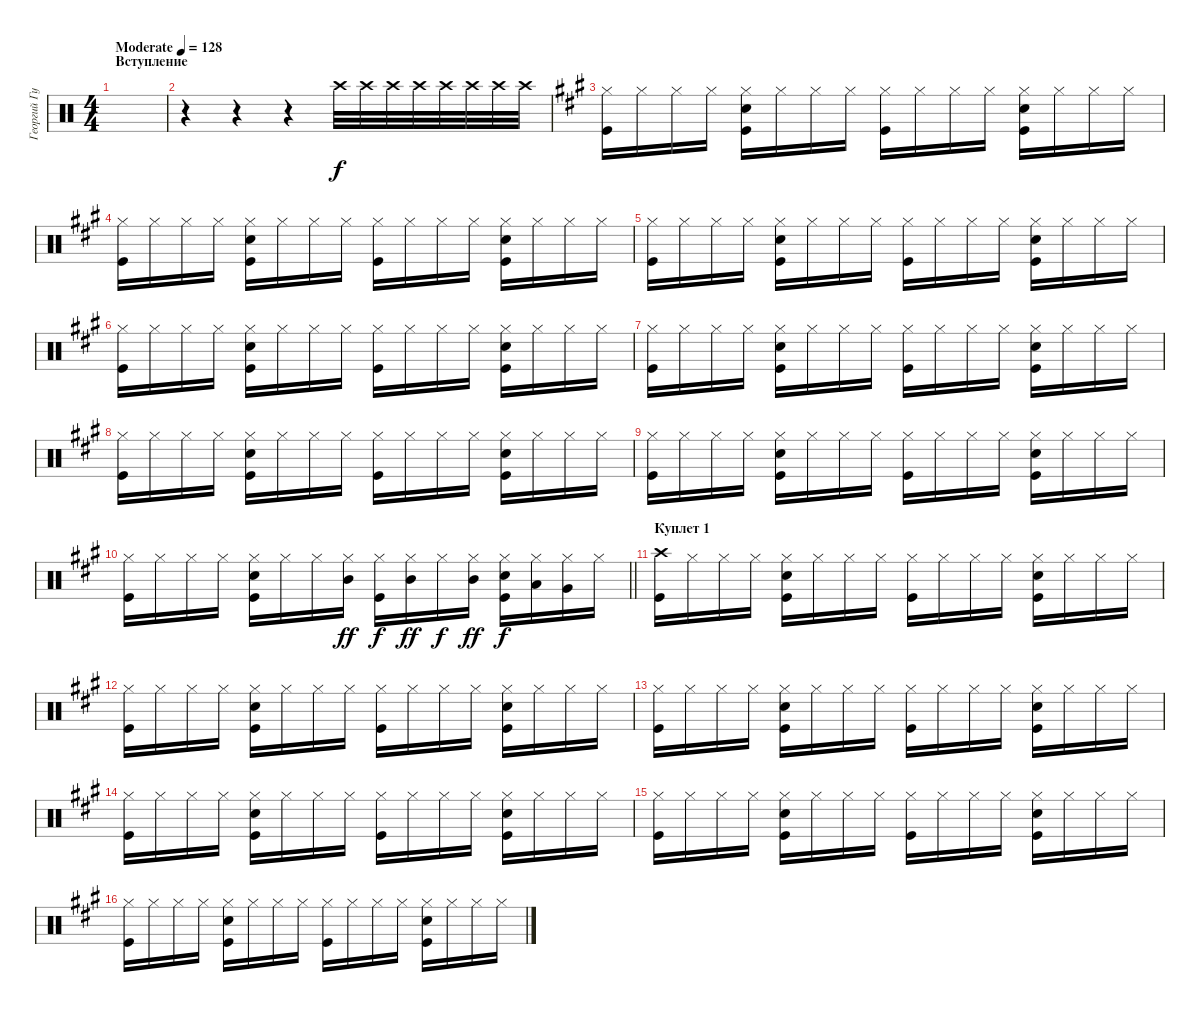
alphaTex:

\track ("Георгий Гурьянов" "Георгий Гу") {instrument percussion}
\staff {score}
\articulation defaults
\ts (4 4)
\section ("" "Вступление")
\tempo (128 "Moderate")
\clef neutral
\ks c
|
r.4 r.4 r.4 "Crash high (hit)".32 "Crash high (hit)".32 "Crash high (hit)".32 "Crash high (hit)".32 "Crash high (hit)".32 "Crash high (hit)".32 "Crash high (hit)".32 "Crash high (hit)".32 |
\ks f#minor
("Hi-Hat (closed)" "Kick (hit)").16 "Hi-Hat (closed)".16 "Hi-Hat (closed)".16 "Hi-Hat (closed)".16 ("Hi-Hat (closed)" "Snare (hit) 2" "Kick (hit)").16 "Hi-Hat (closed)".16 "Hi-Hat (closed)".16 "Hi-Hat (closed)".16 ("Hi-Hat (closed)" "Kick (hit)").16 "Hi-Hat (closed)".16 "Hi-Hat (closed)".16 "Hi-Hat (closed)".16 ("Hi-Hat (closed)" "Snare (hit) 2" "Kick (hit)").16 "Hi-Hat (closed)".16 "Hi-Hat (closed)".16 "Hi-Hat (closed)".16 |
("Hi-Hat (closed)" "Kick (hit)").16 "Hi-Hat (closed)".16 "Hi-Hat (closed)".16 "Hi-Hat (closed)".16 ("Hi-Hat (closed)" "Snare (hit) 2" "Kick (hit)").16 "Hi-Hat (closed)".16 "Hi-Hat (closed)".16 "Hi-Hat (closed)".16 ("Hi-Hat (closed)" "Kick (hit)").16 "Hi-Hat (closed)".16 "Hi-Hat (closed)".16 "Hi-Hat (closed)".16 ("Hi-Hat (closed)" "Snare (hit) 2" "Kick (hit)").16 "Hi-Hat (closed)".16 "Hi-Hat (closed)".16 "Hi-Hat (closed)".16 |
("Hi-Hat (closed)" "Kick (hit)").16 "Hi-Hat (closed)".16 "Hi-Hat (closed)".16 "Hi-Hat (closed)".16 ("Hi-Hat (closed)" "Snare (hit) 2" "Kick (hit)").16 "Hi-Hat (closed)".16 "Hi-Hat (closed)".16 "Hi-Hat (closed)".16 ("Hi-Hat (closed)" "Kick (hit)").16 "Hi-Hat (closed)".16 "Hi-Hat (closed)".16 "Hi-Hat (closed)".16 ("Hi-Hat (closed)" "Snare (hit) 2" "Kick (hit)").16 "Hi-Hat (closed)".16 "Hi-Hat (closed)".16 "Hi-Hat (closed)".16 |
("Hi-Hat (closed)" "Kick (hit)").16 "Hi-Hat (closed)".16 "Hi-Hat (closed)".16 "Hi-Hat (closed)".16 ("Hi-Hat (closed)" "Snare (hit) 2" "Kick (hit)").16 "Hi-Hat (closed)".16 "Hi-Hat (closed)".16 "Hi-Hat (closed)".16 ("Hi-Hat (closed)" "Kick (hit)").16 "Hi-Hat (closed)".16 "Hi-Hat (closed)".16 "Hi-Hat (closed)".16 ("Hi-Hat (closed)" "Snare (hit) 2" "Kick (hit)").16 "Hi-Hat (closed)".16 "Hi-Hat (closed)".16 "Hi-Hat (closed)".16 |
("Hi-Hat (closed)" "Kick (hit)").16 "Hi-Hat (closed)".16 "Hi-Hat (closed)".16 "Hi-Hat (closed)".16 ("Hi-Hat (closed)" "Snare (hit) 2" "Kick (hit)").16 "Hi-Hat (closed)".16 "Hi-Hat (closed)".16 "Hi-Hat (closed)".16 ("Hi-Hat (closed)" "Kick (hit)").16 "Hi-Hat (closed)".16 "Hi-Hat (closed)".16 "Hi-Hat (closed)".16 ("Hi-Hat (closed)" "Snare (hit) 2" "Kick (hit)").16 "Hi-Hat (closed)".16 "Hi-Hat (closed)".16 "Hi-Hat (closed)".16 |
("Hi-Hat (closed)" "Kick (hit)").16 "Hi-Hat (closed)".16 "Hi-Hat (closed)".16 "Hi-Hat (closed)".16 ("Hi-Hat (closed)" "Snare (hit) 2" "Kick (hit)").16 "Hi-Hat (closed)".16 "Hi-Hat (closed)".16 "Hi-Hat (closed)".16 ("Hi-Hat (closed)" "Kick (hit)").16 "Hi-Hat (closed)".16 "Hi-Hat (closed)".16 "Hi-Hat (closed)".16 ("Hi-Hat (closed)" "Snare (hit) 2" "Kick (hit)").16 "Hi-Hat (closed)".16 "Hi-Hat (closed)".16 "Hi-Hat (closed)".16 |
("Hi-Hat (closed)" "Kick (hit)").16 "Hi-Hat (closed)".16 "Hi-Hat (closed)".16 "Hi-Hat (closed)".16 ("Hi-Hat (closed)" "Snare (hit) 2" "Kick (hit)").16 "Hi-Hat (closed)".16 "Hi-Hat (closed)".16 "Hi-Hat (closed)".16 ("Hi-Hat (closed)" "Kick (hit)").16 "Hi-Hat (closed)".16 "Hi-Hat (closed)".16 "Hi-Hat (closed)".16 ("Hi-Hat (closed)" "Snare (hit) 2" "Kick (hit)").16 "Hi-Hat (closed)".16 "Hi-Hat (closed)".16 "Hi-Hat (closed)".16 |
\barLineRight lightlight
("Hi-Hat (closed)" "Kick (hit)").16 "Hi-Hat (closed)".16 "Hi-Hat (closed)".16 "Hi-Hat (closed)".16 ("Hi-Hat (closed)" "Snare (hit) 2" "Kick (hit)").16 "Hi-Hat (closed)".16 "Hi-Hat (closed)".16 ("Mid Tom (hit)" "Hi-Hat (closed)").16{dy ff} ("Hi-Hat (closed)" "Kick (hit)").16{dy f} ("Mid Tom (hit)" "Hi-Hat (closed)").16{dy ff} "Hi-Hat (closed)".16{dy f} ("Mid Tom (hit)" "Hi-Hat (closed)").16{dy ff} ("Hi-Hat (closed)" "Snare (hit) 2" "Kick (hit)").16{dy f} ("Hi-Hat (closed)" "Low Tom (hit)").16 ("Very Low Tom (hit)" "Hi-Hat (closed)").16 "Hi-Hat (closed)".16 |
\section ("" "Куплет 1")
("Kick (hit)" "Crash high (hit)").16 "Hi-Hat (closed)".16 "Hi-Hat (closed)".16 "Hi-Hat (closed)".16 ("Hi-Hat (closed)" "Snare (hit) 2" "Kick (hit)").16 "Hi-Hat (closed)".16 "Hi-Hat (closed)".16 "Hi-Hat (closed)".16 ("Hi-Hat (closed)" "Kick (hit)").16 "Hi-Hat (closed)".16 "Hi-Hat (closed)".16 "Hi-Hat (closed)".16 ("Hi-Hat (closed)" "Snare (hit) 2" "Kick (hit)").16 "Hi-Hat (closed)".16 "Hi-Hat (closed)".16 "Hi-Hat (closed)".16 |
("Hi-Hat (closed)" "Kick (hit)").16 "Hi-Hat (closed)".16 "Hi-Hat (closed)".16 "Hi-Hat (closed)".16 ("Hi-Hat (closed)" "Snare (hit) 2" "Kick (hit)").16 "Hi-Hat (closed)".16 "Hi-Hat (closed)".16 "Hi-Hat (closed)".16 ("Hi-Hat (closed)" "Kick (hit)").16 "Hi-Hat (closed)".16 "Hi-Hat (closed)".16 "Hi-Hat (closed)".16 ("Hi-Hat (closed)" "Snare (hit) 2" "Kick (hit)").16 "Hi-Hat (closed)".16 "Hi-Hat (closed)".16 "Hi-Hat (closed)".16 |
("Hi-Hat (closed)" "Kick (hit)").16 "Hi-Hat (closed)".16 "Hi-Hat (closed)".16 "Hi-Hat (closed)".16 ("Hi-Hat (closed)" "Snare (hit) 2" "Kick (hit)").16 "Hi-Hat (closed)".16 "Hi-Hat (closed)".16 "Hi-Hat (closed)".16 ("Hi-Hat (closed)" "Kick (hit)").16 "Hi-Hat (closed)".16 "Hi-Hat (closed)".16 "Hi-Hat (closed)".16 ("Hi-Hat (closed)" "Snare (hit) 2" "Kick (hit)").16 "Hi-Hat (closed)".16 "Hi-Hat (closed)".16 "Hi-Hat (closed)".16 |
("Hi-Hat (closed)" "Kick (hit)").16 "Hi-Hat (closed)".16 "Hi-Hat (closed)".16 "Hi-Hat (closed)".16 ("Hi-Hat (closed)" "Snare (hit) 2" "Kick (hit)").16 "Hi-Hat (closed)".16 "Hi-Hat (closed)".16 "Hi-Hat (closed)".16 ("Hi-Hat (closed)" "Kick (hit)").16 "Hi-Hat (closed)".16 "Hi-Hat (closed)".16 "Hi-Hat (closed)".16 ("Hi-Hat (closed)" "Snare (hit) 2" "Kick (hit)").16 "Hi-Hat (closed)".16 "Hi-Hat (closed)".16 "Hi-Hat (closed)".16 |
("Hi-Hat (closed)" "Kick (hit)").16 "Hi-Hat (closed)".16 "Hi-Hat (closed)".16 "Hi-Hat (closed)".16 ("Hi-Hat (closed)" "Snare (hit) 2" "Kick (hit)").16 "Hi-Hat (closed)".16 "Hi-Hat (closed)".16 "Hi-Hat (closed)".16 ("Hi-Hat (closed)" "Kick (hit)").16 "Hi-Hat (closed)".16 "Hi-Hat (closed)".16 "Hi-Hat (closed)".16 ("Hi-Hat (closed)" "Snare (hit) 2" "Kick (hit)").16 "Hi-Hat (closed)".16 "Hi-Hat (closed)".16 "Hi-Hat (closed)".16 |
("Hi-Hat (closed)" "Kick (hit)").16 "Hi-Hat (closed)".16 "Hi-Hat (closed)".16 "Hi-Hat (closed)".16 ("Hi-Hat (closed)" "Snare (hit) 2" "Kick (hit)").16 "Hi-Hat (closed)".16 "Hi-Hat (closed)".16 "Hi-Hat (closed)".16 ("Hi-Hat (closed)" "Kick (hit)").16 "Hi-Hat (closed)".16 "Hi-Hat (closed)".16 "Hi-Hat (closed)".16 ("Hi-Hat (closed)" "Snare (hit) 2" "Kick (hit)").16 "Hi-Hat (closed)".16 "Hi-Hat (closed)".16 "Hi-Hat (closed)".16
